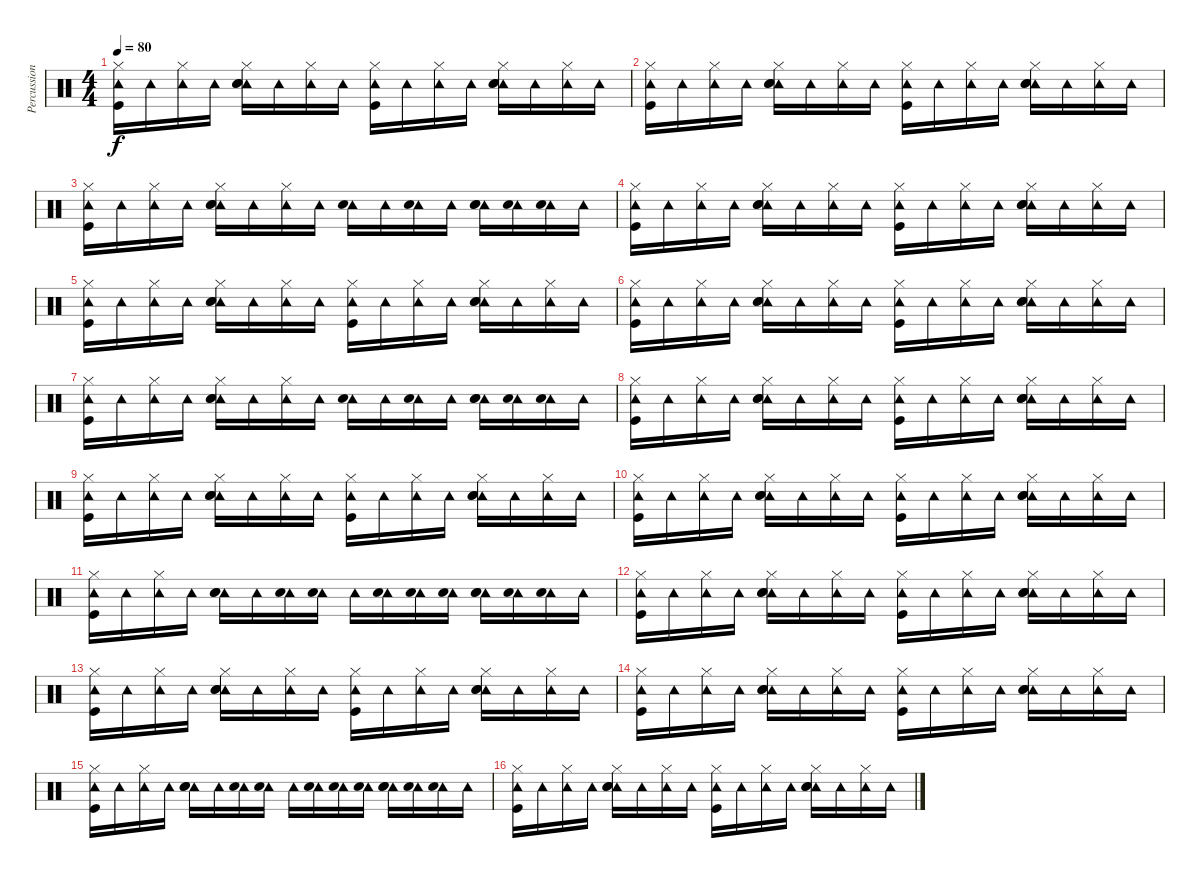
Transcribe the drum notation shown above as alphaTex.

\track ("Percussion" "Percussion") {instrument percussion}
\staff {score}
\articulation defaults
\ts (4 4)
\tempo 80
\clef neutral
\ks c
("Hi-Hat (closed)" "Tambourine (hit)" "Kick (hit)").16{dy f} "Tambourine (hit)".16 ("Hi-Hat (closed)" "Tambourine (hit)").16 "Tambourine (hit)".16 ("Hi-Hat (closed)" "Tambourine (hit)" "Snare (hit) 2" "Hand Clap (hit)").16 "Tambourine (hit)".16 ("Hi-Hat (closed)" "Tambourine (hit)").16 "Tambourine (hit)".16 ("Hi-Hat (closed)" "Tambourine (hit)" "Kick (hit)").16 "Tambourine (hit)".16 ("Hi-Hat (closed)" "Tambourine (hit)").16 "Tambourine (hit)".16 ("Hi-Hat (closed)" "Tambourine (hit)" "Snare (hit) 2" "Hand Clap (hit)").16 "Tambourine (hit)".16 ("Hi-Hat (closed)" "Tambourine (hit)").16 "Tambourine (hit)".16 |
("Hi-Hat (closed)" "Tambourine (hit)" "Kick (hit)").16 "Tambourine (hit)".16 ("Hi-Hat (closed)" "Tambourine (hit)").16 "Tambourine (hit)".16 ("Hi-Hat (closed)" "Tambourine (hit)" "Snare (hit) 2" "Hand Clap (hit)").16 "Tambourine (hit)".16 ("Hi-Hat (closed)" "Tambourine (hit)").16 "Tambourine (hit)".16 ("Hi-Hat (closed)" "Tambourine (hit)" "Kick (hit)").16 "Tambourine (hit)".16 ("Hi-Hat (closed)" "Tambourine (hit)").16 "Tambourine (hit)".16 ("Hi-Hat (closed)" "Tambourine (hit)" "Snare (hit) 2" "Hand Clap (hit)").16 "Tambourine (hit)".16 ("Hi-Hat (closed)" "Tambourine (hit)").16 "Tambourine (hit)".16 |
("Hi-Hat (closed)" "Tambourine (hit)" "Kick (hit)").16 "Tambourine (hit)".16 ("Hi-Hat (closed)" "Tambourine (hit)").16 "Tambourine (hit)".16 ("Hi-Hat (closed)" "Tambourine (hit)" "Snare (hit) 2" "Hand Clap (hit)").16 "Tambourine (hit)".16 ("Hi-Hat (closed)" "Tambourine (hit)").16 "Tambourine (hit)".16 ("Tambourine (hit)" "Snare (hit) 2").16 "Tambourine (hit)".16 ("Tambourine (hit)" "Snare (hit) 2").16 "Tambourine (hit)".16 ("Tambourine (hit)" "Snare (hit) 2" "Hand Clap (hit)").16 ("Tambourine (hit)" "Snare (hit) 2").16 ("Tambourine (hit)" "Snare (hit) 2").16 "Tambourine (hit)".16 |
("Hi-Hat (closed)" "Tambourine (hit)" "Kick (hit)").16 "Tambourine (hit)".16 ("Hi-Hat (closed)" "Tambourine (hit)").16 "Tambourine (hit)".16 ("Hi-Hat (closed)" "Tambourine (hit)" "Snare (hit) 2" "Hand Clap (hit)").16 "Tambourine (hit)".16 ("Hi-Hat (closed)" "Tambourine (hit)").16 "Tambourine (hit)".16 ("Hi-Hat (closed)" "Tambourine (hit)" "Kick (hit)").16 "Tambourine (hit)".16 ("Hi-Hat (closed)" "Tambourine (hit)").16 "Tambourine (hit)".16 ("Hi-Hat (closed)" "Tambourine (hit)" "Snare (hit) 2" "Hand Clap (hit)").16 "Tambourine (hit)".16 ("Hi-Hat (closed)" "Tambourine (hit)").16 "Tambourine (hit)".16 |
("Hi-Hat (closed)" "Tambourine (hit)" "Kick (hit)").16 "Tambourine (hit)".16 ("Hi-Hat (closed)" "Tambourine (hit)").16 "Tambourine (hit)".16 ("Hi-Hat (closed)" "Tambourine (hit)" "Snare (hit) 2" "Hand Clap (hit)").16 "Tambourine (hit)".16 ("Hi-Hat (closed)" "Tambourine (hit)").16 "Tambourine (hit)".16 ("Hi-Hat (closed)" "Tambourine (hit)" "Kick (hit)").16 "Tambourine (hit)".16 ("Hi-Hat (closed)" "Tambourine (hit)").16 "Tambourine (hit)".16 ("Hi-Hat (closed)" "Tambourine (hit)" "Snare (hit) 2" "Hand Clap (hit)").16 "Tambourine (hit)".16 ("Hi-Hat (closed)" "Tambourine (hit)").16 "Tambourine (hit)".16 |
("Hi-Hat (closed)" "Tambourine (hit)" "Kick (hit)").16 "Tambourine (hit)".16 ("Hi-Hat (closed)" "Tambourine (hit)").16 "Tambourine (hit)".16 ("Hi-Hat (closed)" "Tambourine (hit)" "Snare (hit) 2" "Hand Clap (hit)").16 "Tambourine (hit)".16 ("Hi-Hat (closed)" "Tambourine (hit)").16 "Tambourine (hit)".16 ("Hi-Hat (closed)" "Tambourine (hit)" "Kick (hit)").16 "Tambourine (hit)".16 ("Hi-Hat (closed)" "Tambourine (hit)").16 "Tambourine (hit)".16 ("Hi-Hat (closed)" "Tambourine (hit)" "Snare (hit) 2" "Hand Clap (hit)").16 "Tambourine (hit)".16 ("Hi-Hat (closed)" "Tambourine (hit)").16 "Tambourine (hit)".16 |
("Hi-Hat (closed)" "Tambourine (hit)" "Kick (hit)").16 "Tambourine (hit)".16 ("Hi-Hat (closed)" "Tambourine (hit)").16 "Tambourine (hit)".16 ("Hi-Hat (closed)" "Tambourine (hit)" "Snare (hit) 2" "Hand Clap (hit)").16 "Tambourine (hit)".16 ("Hi-Hat (closed)" "Tambourine (hit)").16 "Tambourine (hit)".16 ("Tambourine (hit)" "Snare (hit) 2").16 "Tambourine (hit)".16 ("Tambourine (hit)" "Snare (hit) 2").16 "Tambourine (hit)".16 ("Tambourine (hit)" "Snare (hit) 2" "Hand Clap (hit)").16 ("Tambourine (hit)" "Snare (hit) 2").16 ("Tambourine (hit)" "Snare (hit) 2").16 "Tambourine (hit)".16 |
("Hi-Hat (closed)" "Tambourine (hit)" "Kick (hit)").16 "Tambourine (hit)".16 ("Hi-Hat (closed)" "Tambourine (hit)").16 "Tambourine (hit)".16 ("Hi-Hat (closed)" "Tambourine (hit)" "Snare (hit) 2" "Hand Clap (hit)").16 "Tambourine (hit)".16 ("Hi-Hat (closed)" "Tambourine (hit)").16 "Tambourine (hit)".16 ("Hi-Hat (closed)" "Tambourine (hit)" "Kick (hit)").16 "Tambourine (hit)".16 ("Hi-Hat (closed)" "Tambourine (hit)").16 "Tambourine (hit)".16 ("Hi-Hat (closed)" "Tambourine (hit)" "Snare (hit) 2" "Hand Clap (hit)").16 "Tambourine (hit)".16 ("Hi-Hat (closed)" "Tambourine (hit)").16 "Tambourine (hit)".16 |
("Hi-Hat (closed)" "Tambourine (hit)" "Kick (hit)").16 "Tambourine (hit)".16 ("Hi-Hat (closed)" "Tambourine (hit)").16 "Tambourine (hit)".16 ("Hi-Hat (closed)" "Tambourine (hit)" "Snare (hit) 2" "Hand Clap (hit)").16 "Tambourine (hit)".16 ("Hi-Hat (closed)" "Tambourine (hit)").16 "Tambourine (hit)".16 ("Hi-Hat (closed)" "Tambourine (hit)" "Kick (hit)").16 "Tambourine (hit)".16 ("Hi-Hat (closed)" "Tambourine (hit)").16 "Tambourine (hit)".16 ("Hi-Hat (closed)" "Tambourine (hit)" "Snare (hit) 2" "Hand Clap (hit)").16 "Tambourine (hit)".16 ("Hi-Hat (closed)" "Tambourine (hit)").16 "Tambourine (hit)".16 |
("Hi-Hat (closed)" "Tambourine (hit)" "Kick (hit)").16 "Tambourine (hit)".16 ("Hi-Hat (closed)" "Tambourine (hit)").16 "Tambourine (hit)".16 ("Hi-Hat (closed)" "Tambourine (hit)" "Snare (hit) 2" "Hand Clap (hit)").16 "Tambourine (hit)".16 ("Hi-Hat (closed)" "Tambourine (hit)").16 "Tambourine (hit)".16 ("Hi-Hat (closed)" "Tambourine (hit)" "Kick (hit)").16 "Tambourine (hit)".16 ("Hi-Hat (closed)" "Tambourine (hit)").16 "Tambourine (hit)".16 ("Hi-Hat (closed)" "Tambourine (hit)" "Snare (hit) 2" "Hand Clap (hit)").16 "Tambourine (hit)".16 ("Hi-Hat (closed)" "Tambourine (hit)").16 "Tambourine (hit)".16 |
("Hi-Hat (closed)" "Tambourine (hit)" "Kick (hit)").16 "Tambourine (hit)".16 ("Hi-Hat (closed)" "Tambourine (hit)").16 "Tambourine (hit)".16 ("Tambourine (hit)" "Snare (hit) 2" "Hand Clap (hit)").16 "Tambourine (hit)".16 ("Tambourine (hit)" "Snare (hit) 2").16 ("Tambourine (hit)" "Snare (hit) 2").16 "Tambourine (hit)".16 ("Tambourine (hit)" "Snare (hit) 2").16 ("Tambourine (hit)" "Snare (hit) 2").16 ("Tambourine (hit)" "Snare (hit) 2").16 ("Tambourine (hit)" "Snare (hit) 2" "Hand Clap (hit)").16 ("Tambourine (hit)" "Snare (hit) 2").16 ("Tambourine (hit)" "Snare (hit) 2").16 "Tambourine (hit)".16 |
("Hi-Hat (closed)" "Tambourine (hit)" "Kick (hit)").16 "Tambourine (hit)".16 ("Hi-Hat (closed)" "Tambourine (hit)").16 "Tambourine (hit)".16 ("Hi-Hat (closed)" "Tambourine (hit)" "Snare (hit) 2" "Hand Clap (hit)").16 "Tambourine (hit)".16 ("Hi-Hat (closed)" "Tambourine (hit)").16 "Tambourine (hit)".16 ("Hi-Hat (closed)" "Tambourine (hit)" "Kick (hit)").16 "Tambourine (hit)".16 ("Hi-Hat (closed)" "Tambourine (hit)").16 "Tambourine (hit)".16 ("Hi-Hat (closed)" "Tambourine (hit)" "Snare (hit) 2" "Hand Clap (hit)").16 "Tambourine (hit)".16 ("Hi-Hat (closed)" "Tambourine (hit)").16 "Tambourine (hit)".16 |
("Hi-Hat (closed)" "Tambourine (hit)" "Kick (hit)").16 "Tambourine (hit)".16 ("Hi-Hat (closed)" "Tambourine (hit)").16 "Tambourine (hit)".16 ("Hi-Hat (closed)" "Tambourine (hit)" "Snare (hit) 2" "Hand Clap (hit)").16 "Tambourine (hit)".16 ("Hi-Hat (closed)" "Tambourine (hit)").16 "Tambourine (hit)".16 ("Hi-Hat (closed)" "Tambourine (hit)" "Kick (hit)").16 "Tambourine (hit)".16 ("Hi-Hat (closed)" "Tambourine (hit)").16 "Tambourine (hit)".16 ("Hi-Hat (closed)" "Tambourine (hit)" "Snare (hit) 2" "Hand Clap (hit)").16 "Tambourine (hit)".16 ("Hi-Hat (closed)" "Tambourine (hit)").16 "Tambourine (hit)".16 |
("Hi-Hat (closed)" "Tambourine (hit)" "Kick (hit)").16 "Tambourine (hit)".16 ("Hi-Hat (closed)" "Tambourine (hit)").16 "Tambourine (hit)".16 ("Hi-Hat (closed)" "Tambourine (hit)" "Snare (hit) 2" "Hand Clap (hit)").16 "Tambourine (hit)".16 ("Hi-Hat (closed)" "Tambourine (hit)").16 "Tambourine (hit)".16 ("Hi-Hat (closed)" "Tambourine (hit)" "Kick (hit)").16 "Tambourine (hit)".16 ("Hi-Hat (closed)" "Tambourine (hit)").16 "Tambourine (hit)".16 ("Hi-Hat (closed)" "Tambourine (hit)" "Snare (hit) 2" "Hand Clap (hit)").16 "Tambourine (hit)".16 ("Hi-Hat (closed)" "Tambourine (hit)").16 "Tambourine (hit)".16 |
("Hi-Hat (closed)" "Tambourine (hit)" "Kick (hit)").16 "Tambourine (hit)".16 ("Hi-Hat (closed)" "Tambourine (hit)").16 "Tambourine (hit)".16 ("Tambourine (hit)" "Snare (hit) 2" "Hand Clap (hit)").16 "Tambourine (hit)".16 ("Tambourine (hit)" "Snare (hit) 2").16 ("Tambourine (hit)" "Snare (hit) 2").16 "Tambourine (hit)".16 ("Tambourine (hit)" "Snare (hit) 2").16 ("Tambourine (hit)" "Snare (hit) 2").16 ("Tambourine (hit)" "Snare (hit) 2").16 ("Tambourine (hit)" "Snare (hit) 2" "Hand Clap (hit)").16 ("Tambourine (hit)" "Snare (hit) 2").16 ("Tambourine (hit)" "Snare (hit) 2").16 "Tambourine (hit)".16 |
("Hi-Hat (closed)" "Tambourine (hit)" "Kick (hit)").16 "Tambourine (hit)".16 ("Hi-Hat (closed)" "Tambourine (hit)").16 "Tambourine (hit)".16 ("Hi-Hat (closed)" "Tambourine (hit)" "Snare (hit) 2" "Hand Clap (hit)").16 "Tambourine (hit)".16 ("Hi-Hat (closed)" "Tambourine (hit)").16 "Tambourine (hit)".16 ("Hi-Hat (closed)" "Tambourine (hit)" "Kick (hit)").16 "Tambourine (hit)".16 ("Hi-Hat (closed)" "Tambourine (hit)").16 "Tambourine (hit)".16 ("Hi-Hat (closed)" "Tambourine (hit)" "Snare (hit) 2" "Hand Clap (hit)").16 "Tambourine (hit)".16 ("Hi-Hat (closed)" "Tambourine (hit)").16 "Tambourine (hit)".16
